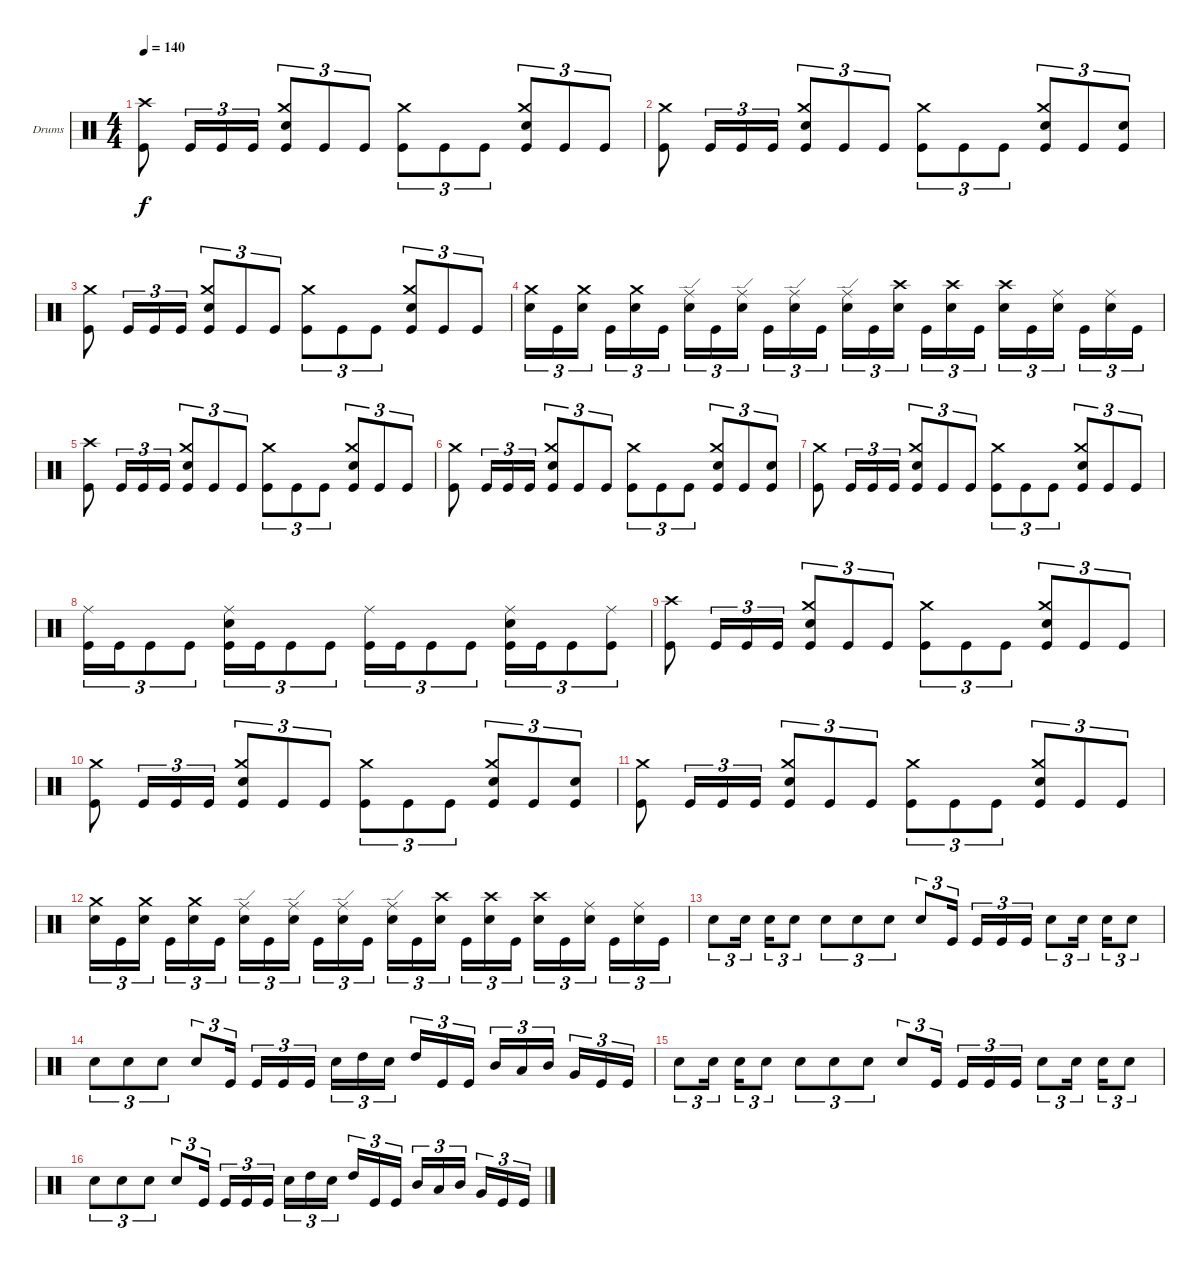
\bracketExtendMode groupsimilarinstruments
\firstSystemTrackNameOrientation horizontal
\otherSystemsTrackNameOrientation horizontal
\track ("Drumkit" "Drums") {instrument percussion}
\staff {score}
\articulation defaults
\ts (4 4)
\tempo 140
\clef neutral
\ks c
("Kick (hit)" "Crash high (hit)").8{dy f} "Kick (hit)".16{tu (3 2)} "Kick (hit)".16{tu (3 2)} "Kick (hit)".16{tu (3 2)} ("Kick (hit)" "Crash medium (hit)" "Snare (hit) 2").8{tu (3 2)} "Kick (hit)".8{tu (3 2)} "Kick (hit)".8{tu (3 2)} ("Kick (hit)" "Crash medium (hit)").8{tu (3 2)} "Kick (hit)".8{tu (3 2)} "Kick (hit)".8{tu (3 2)} ("Kick (hit)" "Crash medium (hit)" "Snare (hit) 2").8{tu (3 2)} "Kick (hit)".8{tu (3 2)} "Kick (hit)".8{tu (3 2)} |
("Kick (hit)" "Crash medium (hit)").8 "Kick (hit)".16{tu (3 2)} "Kick (hit)".16{tu (3 2)} "Kick (hit)".16{tu (3 2)} ("Kick (hit)" "Crash medium (hit)" "Snare (hit) 2").8{tu (3 2)} "Kick (hit)".8{tu (3 2)} "Kick (hit)".8{tu (3 2)} ("Kick (hit)" "Crash medium (hit)").8{tu (3 2)} "Kick (hit)".8{tu (3 2)} "Kick (hit)".8{tu (3 2)} ("Kick (hit)" "Crash medium (hit)" "Snare (hit) 2").8{tu (3 2)} "Kick (hit)".8{tu (3 2)} ("Kick (hit)" "Snare (hit) 2").8{tu (3 2)} |
("Kick (hit)" "Crash medium (hit)").8 "Kick (hit)".16{tu (3 2)} "Kick (hit)".16{tu (3 2)} "Kick (hit)".16{tu (3 2)} ("Kick (hit)" "Crash medium (hit)" "Snare (hit) 2").8{tu (3 2)} "Kick (hit)".8{tu (3 2)} "Kick (hit)".8{tu (3 2)} ("Kick (hit)" "Crash medium (hit)").8{tu (3 2)} "Kick (hit)".8{tu (3 2)} "Kick (hit)".8{tu (3 2)} ("Kick (hit)" "Crash medium (hit)" "Snare (hit) 2").8{tu (3 2)} "Kick (hit)".8{tu (3 2)} "Kick (hit)".8{tu (3 2)} |
("Snare (hit) 2" "Crash medium (hit)").16{tu (3 2)} "Kick (hit)".16{tu (3 2)} ("Snare (hit) 2" "Crash medium (hit)").16{tu (3 2)} "Kick (hit)".16{tu (3 2)} ("Snare (hit) 2" "Crash medium (hit)").16{tu (3 2)} "Kick (hit)".16{tu (3 2)} ("Snare (hit) 2" "Ride (edge)").16{tu (3 2)} "Kick (hit)".16{tu (3 2)} ("Snare (hit) 2" "Ride (edge)").16{tu (3 2)} "Kick (hit)".16{tu (3 2)} ("Snare (hit) 2" "Ride (edge)").16{tu (3 2)} "Kick (hit)".16{tu (3 2)} ("Snare (hit) 2" "Ride (edge)").16{tu (3 2)} "Kick (hit)".16{tu (3 2)} ("Snare (hit) 2" "Crash high (hit)").16{tu (3 2)} "Kick (hit)".16{tu (3 2)} ("Snare (hit) 2" "Crash high (hit)").16{tu (3 2)} "Kick (hit)".16{tu (3 2)} ("Snare (hit) 2" "Crash high (hit)").16{tu (3 2)} "Kick (hit)".16{tu (3 2)} ("Snare (hit) 2" "Ride (middle)").16{tu (3 2)} "Kick (hit)".16{tu (3 2)} ("Snare (hit) 2" "Ride (middle)").16{tu (3 2)} "Kick (hit)".16{tu (3 2)} |
("Kick (hit)" "Crash high (hit)").8 "Kick (hit)".16{tu (3 2)} "Kick (hit)".16{tu (3 2)} "Kick (hit)".16{tu (3 2)} ("Kick (hit)" "Crash medium (hit)" "Snare (hit) 2").8{tu (3 2)} "Kick (hit)".8{tu (3 2)} "Kick (hit)".8{tu (3 2)} ("Kick (hit)" "Crash medium (hit)").8{tu (3 2)} "Kick (hit)".8{tu (3 2)} "Kick (hit)".8{tu (3 2)} ("Kick (hit)" "Crash medium (hit)" "Snare (hit) 2").8{tu (3 2)} "Kick (hit)".8{tu (3 2)} "Kick (hit)".8{tu (3 2)} |
("Kick (hit)" "Crash medium (hit)").8 "Kick (hit)".16{tu (3 2)} "Kick (hit)".16{tu (3 2)} "Kick (hit)".16{tu (3 2)} ("Kick (hit)" "Crash medium (hit)" "Snare (hit) 2").8{tu (3 2)} "Kick (hit)".8{tu (3 2)} "Kick (hit)".8{tu (3 2)} ("Kick (hit)" "Crash medium (hit)").8{tu (3 2)} "Kick (hit)".8{tu (3 2)} "Kick (hit)".8{tu (3 2)} ("Kick (hit)" "Crash medium (hit)" "Snare (hit) 2").8{tu (3 2)} "Kick (hit)".8{tu (3 2)} ("Kick (hit)" "Snare (hit) 2").8{tu (3 2)} |
("Kick (hit)" "Crash medium (hit)").8 "Kick (hit)".16{tu (3 2)} "Kick (hit)".16{tu (3 2)} "Kick (hit)".16{tu (3 2)} ("Kick (hit)" "Crash medium (hit)" "Snare (hit) 2").8{tu (3 2)} "Kick (hit)".8{tu (3 2)} "Kick (hit)".8{tu (3 2)} ("Kick (hit)" "Crash medium (hit)").8{tu (3 2)} "Kick (hit)".8{tu (3 2)} "Kick (hit)".8{tu (3 2)} ("Kick (hit)" "Crash medium (hit)" "Snare (hit) 2").8{tu (3 2)} "Kick (hit)".8{tu (3 2)} "Kick (hit)".8{tu (3 2)} |
("Kick (hit)" "Ride (middle)").16{tu (3 2)} "Kick (hit)".16{tu (3 2)} "Kick (hit)".8{tu (3 2)} "Kick (hit)".8{tu (3 2)} ("Kick (hit)" "Ride (middle)" "Snare (hit) 2").16{tu (3 2)} "Kick (hit)".16{tu (3 2)} "Kick (hit)".8{tu (3 2)} "Kick (hit)".8{tu (3 2)} ("Kick (hit)" "Ride (middle)").16{tu (3 2)} "Kick (hit)".16{tu (3 2)} "Kick (hit)".8{tu (3 2)} "Kick (hit)".8{tu (3 2)} ("Kick (hit)" "Ride (middle)" "Snare (hit) 2").16{tu (3 2)} "Kick (hit)".16{tu (3 2)} "Kick (hit)".8{tu (3 2)} ("Kick (hit)" "Ride (middle)").8{tu (3 2)} |
("Kick (hit)" "Crash high (hit)").8 "Kick (hit)".16{tu (3 2)} "Kick (hit)".16{tu (3 2)} "Kick (hit)".16{tu (3 2)} ("Kick (hit)" "Crash medium (hit)" "Snare (hit) 2").8{tu (3 2)} "Kick (hit)".8{tu (3 2)} "Kick (hit)".8{tu (3 2)} ("Kick (hit)" "Crash medium (hit)").8{tu (3 2)} "Kick (hit)".8{tu (3 2)} "Kick (hit)".8{tu (3 2)} ("Kick (hit)" "Crash medium (hit)" "Snare (hit) 2").8{tu (3 2)} "Kick (hit)".8{tu (3 2)} "Kick (hit)".8{tu (3 2)} |
("Kick (hit)" "Crash medium (hit)").8 "Kick (hit)".16{tu (3 2)} "Kick (hit)".16{tu (3 2)} "Kick (hit)".16{tu (3 2)} ("Kick (hit)" "Crash medium (hit)" "Snare (hit) 2").8{tu (3 2)} "Kick (hit)".8{tu (3 2)} "Kick (hit)".8{tu (3 2)} ("Kick (hit)" "Crash medium (hit)").8{tu (3 2)} "Kick (hit)".8{tu (3 2)} "Kick (hit)".8{tu (3 2)} ("Kick (hit)" "Crash medium (hit)" "Snare (hit) 2").8{tu (3 2)} "Kick (hit)".8{tu (3 2)} ("Kick (hit)" "Snare (hit) 2").8{tu (3 2)} |
("Kick (hit)" "Crash medium (hit)").8 "Kick (hit)".16{tu (3 2)} "Kick (hit)".16{tu (3 2)} "Kick (hit)".16{tu (3 2)} ("Kick (hit)" "Crash medium (hit)" "Snare (hit) 2").8{tu (3 2)} "Kick (hit)".8{tu (3 2)} "Kick (hit)".8{tu (3 2)} ("Kick (hit)" "Crash medium (hit)").8{tu (3 2)} "Kick (hit)".8{tu (3 2)} "Kick (hit)".8{tu (3 2)} ("Kick (hit)" "Crash medium (hit)" "Snare (hit) 2").8{tu (3 2)} "Kick (hit)".8{tu (3 2)} "Kick (hit)".8{tu (3 2)} |
("Snare (hit) 2" "Crash medium (hit)").16{tu (3 2)} "Kick (hit)".16{tu (3 2)} ("Snare (hit) 2" "Crash medium (hit)").16{tu (3 2)} "Kick (hit)".16{tu (3 2)} ("Snare (hit) 2" "Crash medium (hit)").16{tu (3 2)} "Kick (hit)".16{tu (3 2)} ("Snare (hit) 2" "Ride (edge)").16{tu (3 2)} "Kick (hit)".16{tu (3 2)} ("Snare (hit) 2" "Ride (edge)").16{tu (3 2)} "Kick (hit)".16{tu (3 2)} ("Snare (hit) 2" "Ride (edge)").16{tu (3 2)} "Kick (hit)".16{tu (3 2)} ("Snare (hit) 2" "Ride (edge)").16{tu (3 2)} "Kick (hit)".16{tu (3 2)} ("Snare (hit) 2" "Crash high (hit)").16{tu (3 2)} "Kick (hit)".16{tu (3 2)} ("Snare (hit) 2" "Crash high (hit)").16{tu (3 2)} "Kick (hit)".16{tu (3 2)} ("Snare (hit) 2" "Crash high (hit)").16{tu (3 2)} "Kick (hit)".16{tu (3 2)} ("Snare (hit) 2" "Ride (middle)").16{tu (3 2)} "Kick (hit)".16{tu (3 2)} ("Snare (hit) 2" "Ride (middle)").16{tu (3 2)} "Kick (hit)".16{tu (3 2)} |
"Snare (hit) 2".8{tu (3 2)} "Snare (hit) 2".16{tu (3 2)} "Snare (hit) 2".16{tu (3 2)} "Snare (hit) 2".8{tu (3 2)} "Snare (hit) 2".8{tu (3 2)} "Snare (hit) 2".8{tu (3 2)} "Snare (hit) 2".8{tu (3 2)} "Snare (hit) 2".8{tu (3 2)} "Kick (hit)".16{tu (3 2)} "Kick (hit)".16{tu (3 2)} "Kick (hit)".16{tu (3 2)} "Kick (hit)".16{tu (3 2)} "Snare (hit) 2".8{tu (3 2)} "Snare (hit) 2".16{tu (3 2)} "Snare (hit) 2".16{tu (3 2)} "Snare (hit) 2".8{tu (3 2)} |
"Snare (hit) 2".8{tu (3 2)} "Snare (hit) 2".8{tu (3 2)} "Snare (hit) 2".8{tu (3 2)} "Snare (hit) 2".8{tu (3 2)} "Kick (hit)".16{tu (3 2)} "Kick (hit)".16{tu (3 2)} "Kick (hit)".16{tu (3 2)} "Kick (hit)".16{tu (3 2)} "Snare (hit) 2".16{tu (3 2)} "High Tom (hit)".16{tu (3 2)} "Snare (hit) 2".16{tu (3 2)} "High Tom (hit)".16{tu (3 2)} "Kick (hit)".16{tu (3 2)} "Kick (hit)".16{tu (3 2)} "Mid Tom (hit)".16{tu (3 2)} "Low Tom (hit)".16{tu (3 2)} "Mid Tom (hit)".16{tu (3 2)} "Very Low Tom (hit)".16{tu (3 2)} "Kick (hit)".16{tu (3 2)} "Kick (hit)".16{tu (3 2)} |
"Snare (hit) 2".8{tu (3 2)} "Snare (hit) 2".16{tu (3 2)} "Snare (hit) 2".16{tu (3 2)} "Snare (hit) 2".8{tu (3 2)} "Snare (hit) 2".8{tu (3 2)} "Snare (hit) 2".8{tu (3 2)} "Snare (hit) 2".8{tu (3 2)} "Snare (hit) 2".8{tu (3 2)} "Kick (hit)".16{tu (3 2)} "Kick (hit)".16{tu (3 2)} "Kick (hit)".16{tu (3 2)} "Kick (hit)".16{tu (3 2)} "Snare (hit) 2".8{tu (3 2)} "Snare (hit) 2".16{tu (3 2)} "Snare (hit) 2".16{tu (3 2)} "Snare (hit) 2".8{tu (3 2)} |
"Snare (hit) 2".8{tu (3 2)} "Snare (hit) 2".8{tu (3 2)} "Snare (hit) 2".8{tu (3 2)} "Snare (hit) 2".8{tu (3 2)} "Kick (hit)".16{tu (3 2)} "Kick (hit)".16{tu (3 2)} "Kick (hit)".16{tu (3 2)} "Kick (hit)".16{tu (3 2)} "Snare (hit) 2".16{tu (3 2)} "High Tom (hit)".16{tu (3 2)} "Snare (hit) 2".16{tu (3 2)} "High Tom (hit)".16{tu (3 2)} "Kick (hit)".16{tu (3 2)} "Kick (hit)".16{tu (3 2)} "Mid Tom (hit)".16{tu (3 2)} "Low Tom (hit)".16{tu (3 2)} "Mid Tom (hit)".16{tu (3 2)} "Very Low Tom (hit)".16{tu (3 2)} "Kick (hit)".16{tu (3 2)} "Kick (hit)".16{tu (3 2)}
